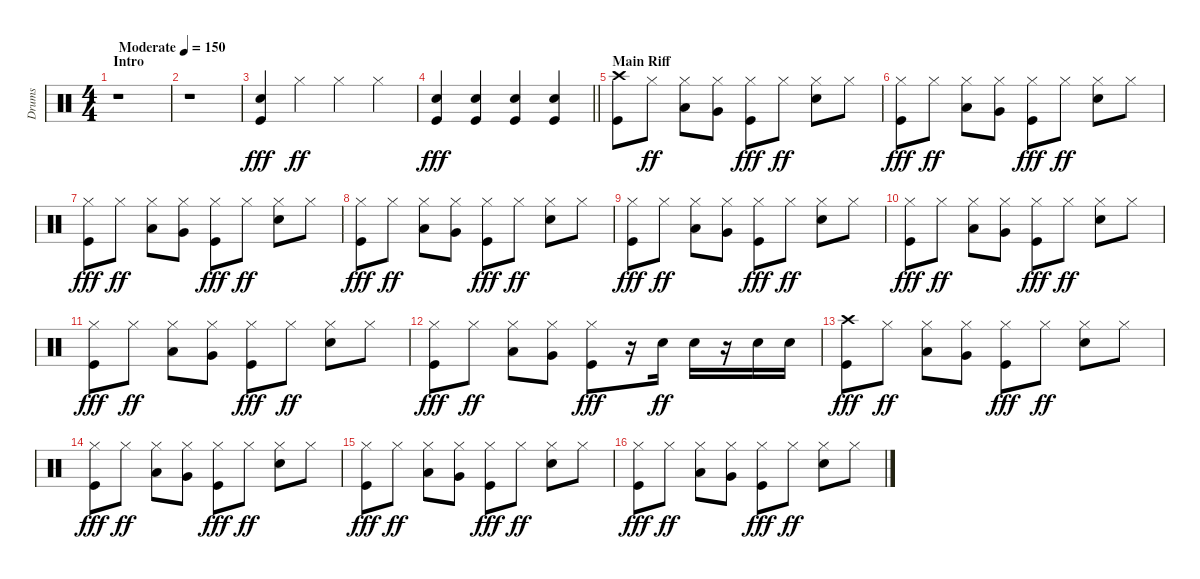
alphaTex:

\track ("Drums" "Drums") {instrument percussion}
\staff {score}
\articulation defaults
\ts (4 4)
\section ("" "Intro")
\tempo (150 "Moderate")
\clef neutral
\ks c
r.1{dy fff} |
r.1 |
("Electric Snare (hit)" "Kick (hit)").4 "Hi-Hat (closed)".4{dy ff} "Hi-Hat (closed)".4 "Hi-Hat (closed)".4 |
\barLineRight lightlight
("Electric Snare (hit)" "Kick (hit)").4{dy fff} ("Electric Snare (hit)" "Kick (hit)").4 ("Electric Snare (hit)" "Kick (hit)").4 ("Electric Snare (hit)" "Kick (hit)").4 |
\section ("" "Main Riff")
("Crash high (hit)" "Kick (hit)").8 "Hi-Hat (closed)".8{dy ff} ("Hi-Hat (closed)" "Low Floor Tom (hit)").8 ("Hi-Hat (closed)" "Very Low Tom (hit)").8 ("Hi-Hat (closed)" "Kick (hit)").8{dy fff} "Hi-Hat (closed)".8{dy ff} ("Hi-Hat (closed)" "Electric Snare (hit)").8 "Hi-Hat (closed)".8 |
("Hi-Hat (closed)" "Kick (hit)").8{dy fff} "Hi-Hat (closed)".8{dy ff} ("Hi-Hat (closed)" "Low Floor Tom (hit)").8 ("Hi-Hat (closed)" "Very Low Tom (hit)").8 ("Hi-Hat (closed)" "Kick (hit)").8{dy fff} "Hi-Hat (closed)".8{dy ff} ("Hi-Hat (closed)" "Electric Snare (hit)").8 "Hi-Hat (closed)".8 |
("Hi-Hat (closed)" "Kick (hit)").8{dy fff} "Hi-Hat (closed)".8{dy ff} ("Hi-Hat (closed)" "Low Floor Tom (hit)").8 ("Hi-Hat (closed)" "Very Low Tom (hit)").8 ("Hi-Hat (closed)" "Kick (hit)").8{dy fff} "Hi-Hat (closed)".8{dy ff} ("Hi-Hat (closed)" "Electric Snare (hit)").8 "Hi-Hat (closed)".8 |
("Hi-Hat (closed)" "Kick (hit)").8{dy fff} "Hi-Hat (closed)".8{dy ff} ("Hi-Hat (closed)" "Low Floor Tom (hit)").8 ("Hi-Hat (closed)" "Very Low Tom (hit)").8 ("Hi-Hat (closed)" "Kick (hit)").8{dy fff} "Hi-Hat (closed)".8{dy ff} ("Hi-Hat (closed)" "Electric Snare (hit)").8 "Hi-Hat (closed)".8 |
("Hi-Hat (closed)" "Kick (hit)").8{dy fff} "Hi-Hat (closed)".8{dy ff} ("Hi-Hat (closed)" "Low Floor Tom (hit)").8 ("Hi-Hat (closed)" "Very Low Tom (hit)").8 ("Hi-Hat (closed)" "Kick (hit)").8{dy fff} "Hi-Hat (closed)".8{dy ff} ("Hi-Hat (closed)" "Electric Snare (hit)").8 "Hi-Hat (closed)".8 |
("Hi-Hat (closed)" "Kick (hit)").8{dy fff} "Hi-Hat (closed)".8{dy ff} ("Hi-Hat (closed)" "Low Floor Tom (hit)").8 ("Hi-Hat (closed)" "Very Low Tom (hit)").8 ("Hi-Hat (closed)" "Kick (hit)").8{dy fff} "Hi-Hat (closed)".8{dy ff} ("Hi-Hat (closed)" "Electric Snare (hit)").8 "Hi-Hat (closed)".8 |
("Hi-Hat (closed)" "Kick (hit)").8{dy fff} "Hi-Hat (closed)".8{dy ff} ("Hi-Hat (closed)" "Low Floor Tom (hit)").8 ("Hi-Hat (closed)" "Very Low Tom (hit)").8 ("Hi-Hat (closed)" "Kick (hit)").8{dy fff} "Hi-Hat (closed)".8{dy ff} ("Hi-Hat (closed)" "Electric Snare (hit)").8 "Hi-Hat (closed)".8 |
("Hi-Hat (closed)" "Kick (hit)").8{dy fff} "Hi-Hat (closed)".8{dy ff} ("Hi-Hat (closed)" "Low Floor Tom (hit)").8 ("Hi-Hat (closed)" "Very Low Tom (hit)").8 ("Hi-Hat (closed)" "Kick (hit)").8{dy fff} r.16 "Electric Snare (hit)".16{dy ff} "Electric Snare (hit)".16 r.16 "Electric Snare (hit)".16 "Electric Snare (hit)".16 |
("Crash high (hit)" "Kick (hit)").8{dy fff} "Hi-Hat (closed)".8{dy ff} ("Hi-Hat (closed)" "Low Floor Tom (hit)").8 ("Hi-Hat (closed)" "Very Low Tom (hit)").8 ("Hi-Hat (closed)" "Kick (hit)").8{dy fff} "Hi-Hat (closed)".8{dy ff} ("Hi-Hat (closed)" "Electric Snare (hit)").8 "Hi-Hat (closed)".8 |
("Hi-Hat (closed)" "Kick (hit)").8{dy fff} "Hi-Hat (closed)".8{dy ff} ("Hi-Hat (closed)" "Low Floor Tom (hit)").8 ("Hi-Hat (closed)" "Very Low Tom (hit)").8 ("Hi-Hat (closed)" "Kick (hit)").8{dy fff} "Hi-Hat (closed)".8{dy ff} ("Hi-Hat (closed)" "Electric Snare (hit)").8 "Hi-Hat (closed)".8 |
("Hi-Hat (closed)" "Kick (hit)").8{dy fff} "Hi-Hat (closed)".8{dy ff} ("Hi-Hat (closed)" "Low Floor Tom (hit)").8 ("Hi-Hat (closed)" "Very Low Tom (hit)").8 ("Hi-Hat (closed)" "Kick (hit)").8{dy fff} "Hi-Hat (closed)".8{dy ff} ("Hi-Hat (closed)" "Electric Snare (hit)").8 "Hi-Hat (closed)".8 |
("Hi-Hat (closed)" "Kick (hit)").8{dy fff} "Hi-Hat (closed)".8{dy ff} ("Hi-Hat (closed)" "Low Floor Tom (hit)").8 ("Hi-Hat (closed)" "Very Low Tom (hit)").8 ("Hi-Hat (closed)" "Kick (hit)").8{dy fff} "Hi-Hat (closed)".8{dy ff} ("Hi-Hat (closed)" "Electric Snare (hit)").8 "Hi-Hat (closed)".8
